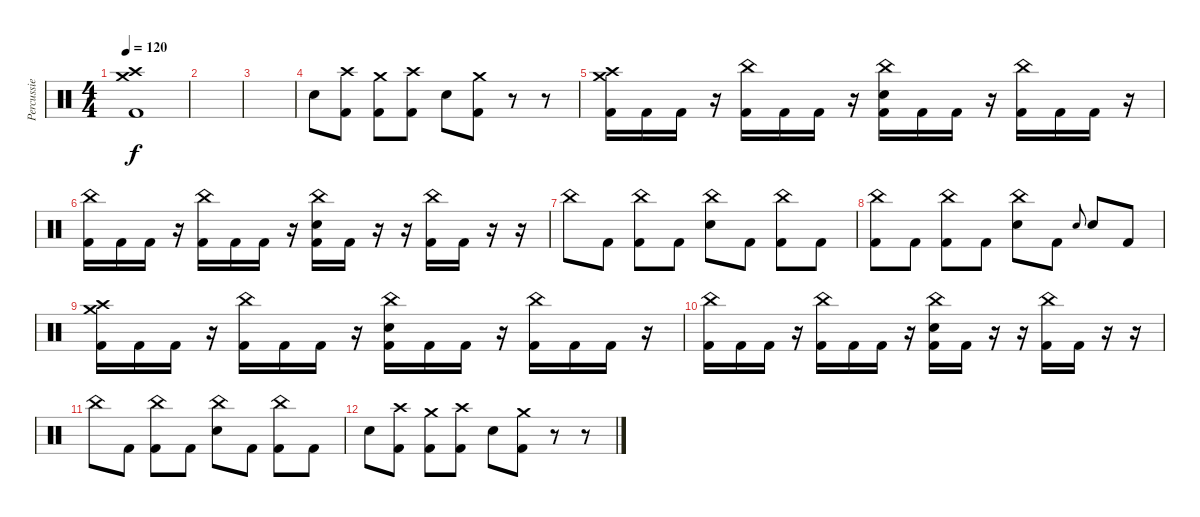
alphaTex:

\track ("Percussie" "Percussie") {instrument percussion}
\staff {score}
\articulation defaults
\ts (4 4)
\tempo 120
\clef neutral
\ks c
("Crash medium (hit)" "Crash high (hit)" "Kick (hit) 2").1{dy f} |
|
|
"Electric Snare (hit)".8 ("Crash high (hit)" "Kick (hit) 2").8 ("Crash medium (hit)" "Kick (hit) 2").8 ("Crash high (hit)" "Kick (hit) 2").8 "Electric Snare (hit)".8 ("Crash medium (hit)" "Kick (hit) 2").8 r.8{volume 0} r.8 |
("Crash medium (hit)" "Crash high (hit)" "Kick (hit) 2").16{volume 13} "Kick (hit) 2".16 "Kick (hit) 2".16 r.16 ("China (hit)" "Kick (hit) 2").16 "Kick (hit) 2".16 "Kick (hit) 2".16 r.16 ("China (hit)" "Electric Snare (hit)" "Kick (hit) 2").16 "Kick (hit) 2".16 "Kick (hit) 2".16 r.16 ("China (hit)" "Kick (hit) 2").16 "Kick (hit) 2".16 "Kick (hit) 2".16 r.16 |
("China (hit)" "Kick (hit) 2").16 "Kick (hit) 2".16 "Kick (hit) 2".16 r.16 ("China (hit)" "Kick (hit) 2").16 "Kick (hit) 2".16 "Kick (hit) 2".16 r.16 ("China (hit)" "Electric Snare (hit)" "Kick (hit) 2").16 "Kick (hit) 2".16 r.16 r.16 ("China (hit)" "Kick (hit) 2").16 "Kick (hit) 2".16 r.16 r.16 |
"China (hit)".8 "Kick (hit) 2".8 ("China (hit)" "Kick (hit) 2").8 "Kick (hit) 2".8 ("China (hit)" "Electric Snare (hit)").8 "Kick (hit) 2".8 ("China (hit)" "Kick (hit) 2").8 "Kick (hit) 2".8 |
("China (hit)" "Kick (hit) 2").8 "Kick (hit) 2".8 ("China (hit)" "Kick (hit) 2").8 "Kick (hit) 2".8 ("China (hit)" "Electric Snare (hit)").8 "Kick (hit) 2".8 "Electric Snare (hit)".8{gr onbeat} "Electric Snare (hit)".8 "Kick (hit) 2".8 |
("Crash medium (hit)" "Crash high (hit)" "Kick (hit) 2").16{volume 13} "Kick (hit) 2".16 "Kick (hit) 2".16 r.16 ("China (hit)" "Kick (hit) 2").16 "Kick (hit) 2".16 "Kick (hit) 2".16 r.16 ("China (hit)" "Electric Snare (hit)" "Kick (hit) 2").16 "Kick (hit) 2".16 "Kick (hit) 2".16 r.16 ("China (hit)" "Kick (hit) 2").16 "Kick (hit) 2".16 "Kick (hit) 2".16 r.16 |
("China (hit)" "Kick (hit) 2").16 "Kick (hit) 2".16 "Kick (hit) 2".16 r.16 ("China (hit)" "Kick (hit) 2").16 "Kick (hit) 2".16 "Kick (hit) 2".16 r.16 ("China (hit)" "Electric Snare (hit)" "Kick (hit) 2").16 "Kick (hit) 2".16 r.16 r.16 ("China (hit)" "Kick (hit) 2").16 "Kick (hit) 2".16 r.16 r.16 |
"China (hit)".8 "Kick (hit) 2".8 ("China (hit)" "Kick (hit) 2").8 "Kick (hit) 2".8 ("China (hit)" "Electric Snare (hit)").8 "Kick (hit) 2".8 ("China (hit)" "Kick (hit) 2").8 "Kick (hit) 2".8 |
"Electric Snare (hit)".8 ("Crash high (hit)" "Kick (hit) 2").8 ("Crash medium (hit)" "Kick (hit) 2").8 ("Crash high (hit)" "Kick (hit) 2").8 "Electric Snare (hit)".8 ("Crash medium (hit)" "Kick (hit) 2").8 r.8{volume 0} r.8
